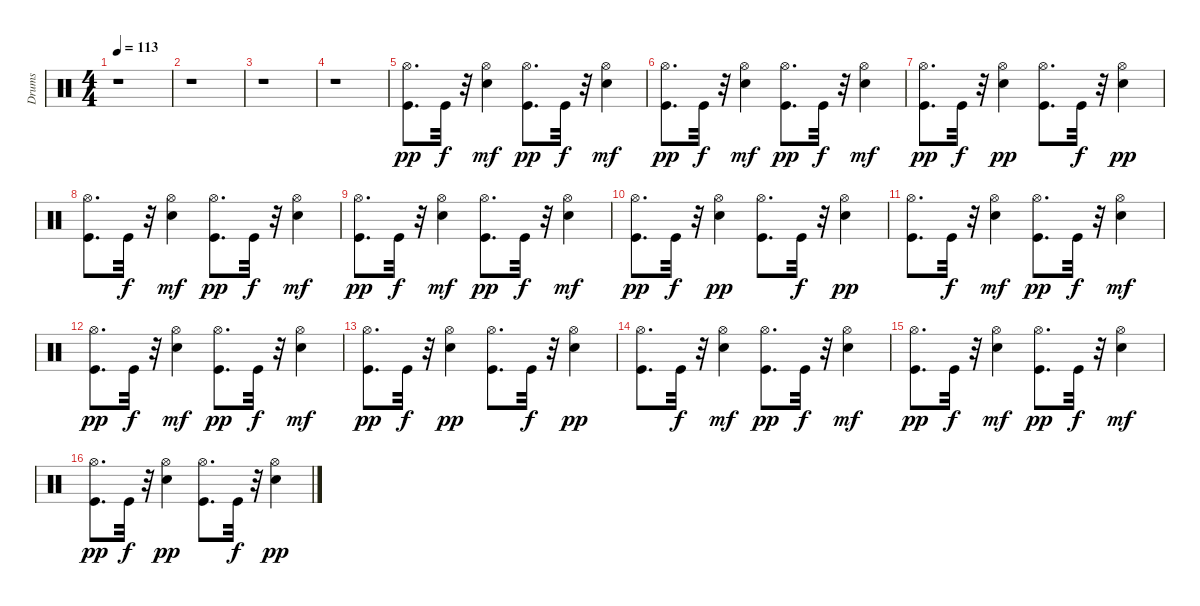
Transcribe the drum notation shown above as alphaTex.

\track ("Drums" "Drums") {instrument percussion}
\staff {score}
\articulation defaults
\ts (4 4)
\tempo 113
\clef neutral
\ks c
r.1{dy pp} |
r.1 |
r.1 |
r.1 |
("Hi-Hat (open)" "Kick (hit)").8{d} "Kick (hit)".32{dy f} r.32 ("Hi-Hat (open)" "Electric Snare (hit)").4{dy mf} ("Hi-Hat (open)" "Kick (hit)").8{d dy pp} "Kick (hit)".32{dy f} r.32 ("Hi-Hat (open)" "Electric Snare (hit)").4{dy mf} |
("Hi-Hat (open)" "Kick (hit)").8{d dy pp} "Kick (hit)".32{dy f} r.32 ("Hi-Hat (open)" "Electric Snare (hit)").4{dy mf} ("Hi-Hat (open)" "Kick (hit)").8{d dy pp} "Kick (hit)".32{dy f} r.32 ("Hi-Hat (open)" "Electric Snare (hit)").4{dy mf} |
("Hi-Hat (open)" "Kick (hit)").8{d dy pp} "Kick (hit)".32{dy f} r.32 ("Electric Snare (hit)" "Hi-Hat (open)").4{dy pp} ("Kick (hit)" "Hi-Hat (open)").8{d} "Kick (hit)".32{dy f} r.32 ("Electric Snare (hit)" "Hi-Hat (open)").4{dy pp} |
("Hi-Hat (open)" "Kick (hit)").8{d} "Kick (hit)".32{dy f} r.32 ("Hi-Hat (open)" "Electric Snare (hit)").4{dy mf} ("Hi-Hat (open)" "Kick (hit)").8{d dy pp} "Kick (hit)".32{dy f} r.32 ("Hi-Hat (open)" "Electric Snare (hit)").4{dy mf} |
("Hi-Hat (open)" "Kick (hit)").8{d dy pp} "Kick (hit)".32{dy f} r.32 ("Hi-Hat (open)" "Electric Snare (hit)").4{dy mf} ("Hi-Hat (open)" "Kick (hit)").8{d dy pp} "Kick (hit)".32{dy f} r.32 ("Hi-Hat (open)" "Electric Snare (hit)").4{dy mf} |
("Hi-Hat (open)" "Kick (hit)").8{d dy pp} "Kick (hit)".32{dy f} r.32 ("Electric Snare (hit)" "Hi-Hat (open)").4{dy pp} ("Kick (hit)" "Hi-Hat (open)").8{d} "Kick (hit)".32{dy f} r.32 ("Electric Snare (hit)" "Hi-Hat (open)").4{dy pp} |
("Hi-Hat (open)" "Kick (hit)").8{d} "Kick (hit)".32{dy f} r.32 ("Hi-Hat (open)" "Electric Snare (hit)").4{dy mf} ("Hi-Hat (open)" "Kick (hit)").8{d dy pp} "Kick (hit)".32{dy f} r.32 ("Hi-Hat (open)" "Electric Snare (hit)").4{dy mf} |
("Hi-Hat (open)" "Kick (hit)").8{d dy pp} "Kick (hit)".32{dy f} r.32 ("Hi-Hat (open)" "Electric Snare (hit)").4{dy mf} ("Hi-Hat (open)" "Kick (hit)").8{d dy pp} "Kick (hit)".32{dy f} r.32 ("Hi-Hat (open)" "Electric Snare (hit)").4{dy mf} |
("Hi-Hat (open)" "Kick (hit)").8{d dy pp} "Kick (hit)".32{dy f} r.32 ("Electric Snare (hit)" "Hi-Hat (open)").4{dy pp} ("Kick (hit)" "Hi-Hat (open)").8{d} "Kick (hit)".32{dy f} r.32 ("Electric Snare (hit)" "Hi-Hat (open)").4{dy pp} |
("Hi-Hat (open)" "Kick (hit)").8{d} "Kick (hit)".32{dy f} r.32 ("Hi-Hat (open)" "Electric Snare (hit)").4{dy mf} ("Hi-Hat (open)" "Kick (hit)").8{d dy pp} "Kick (hit)".32{dy f} r.32 ("Hi-Hat (open)" "Electric Snare (hit)").4{dy mf} |
("Hi-Hat (open)" "Kick (hit)").8{d dy pp} "Kick (hit)".32{dy f} r.32 ("Hi-Hat (open)" "Electric Snare (hit)").4{dy mf} ("Hi-Hat (open)" "Kick (hit)").8{d dy pp} "Kick (hit)".32{dy f} r.32 ("Hi-Hat (open)" "Electric Snare (hit)").4{dy mf} |
("Hi-Hat (open)" "Kick (hit)").8{d dy pp} "Kick (hit)".32{dy f} r.32 ("Electric Snare (hit)" "Hi-Hat (open)").4{dy pp} ("Kick (hit)" "Hi-Hat (open)").8{d} "Kick (hit)".32{dy f} r.32 ("Electric Snare (hit)" "Hi-Hat (open)").4{dy pp}
